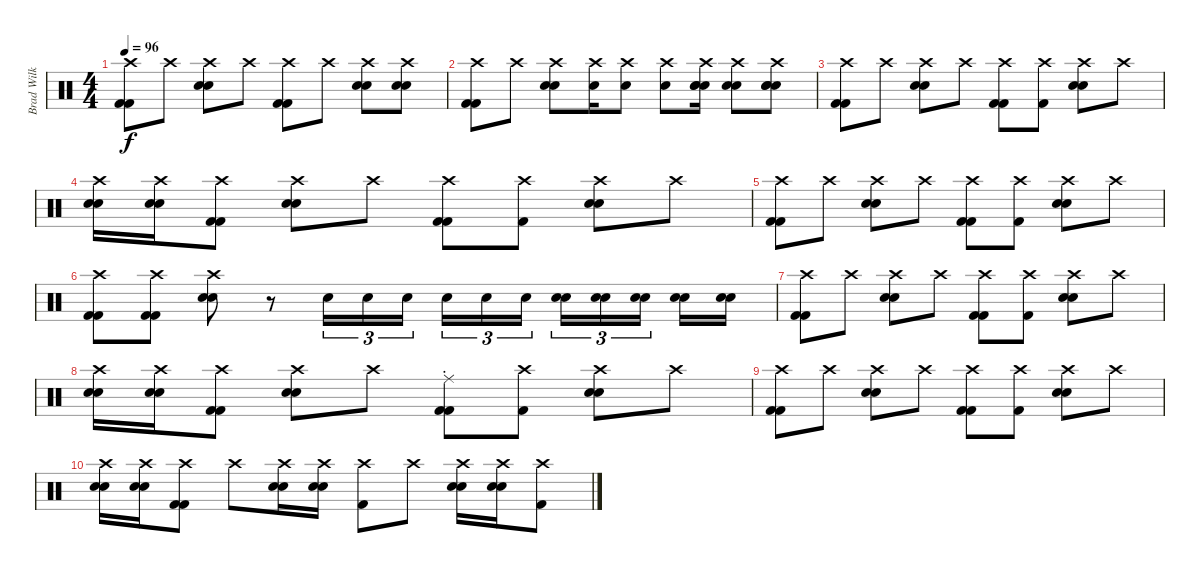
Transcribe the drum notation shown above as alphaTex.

\track ("Brad Wilk" "Brad Wilk") {instrument percussion}
\staff {score}
\articulation defaults
\ts (4 4)
\tempo 96
\clef neutral
\ks c
("Crash high (hit)" "Kick (hit) 2" "Kick (hit) 2").8{dy f} "Crash high (hit)".8 ("Crash high (hit)" "Electric Snare (hit)" "Electric Snare (hit)").8 "Crash high (hit)".8 ("Crash high (hit)" "Kick (hit) 2" "Kick (hit) 2").8 "Crash high (hit)".8 ("Crash high (hit)" "Electric Snare (hit)" "Electric Snare (hit)").8 ("Crash high (hit)" "Electric Snare (hit)" "Electric Snare (hit)").8 |
("Crash high (hit)" "Kick (hit) 2" "Kick (hit) 2").8 "Crash high (hit)".8 ("Crash high (hit)" "Electric Snare (hit)" "Electric Snare (hit)").8 ("Crash high (hit)" "Electric Snare (hit)").16 ("Crash high (hit)" "Electric Snare (hit)").8 ("Crash high (hit)" "Electric Snare (hit)").8 ("Crash high (hit)" "Electric Snare (hit)" "Electric Snare (hit)" "Electric Snare (hit)").16 ("Crash high (hit)" "Electric Snare (hit)" "Electric Snare (hit)").8 ("Crash high (hit)" "Electric Snare (hit)" "Electric Snare (hit)" "Electric Snare (hit)").8 |
("Crash high (hit)" "Kick (hit) 2" "Kick (hit) 2").8 "Crash high (hit)".8 ("Crash high (hit)" "Electric Snare (hit)" "Electric Snare (hit)").8 "Crash high (hit)".8 ("Crash high (hit)" "Kick (hit) 2" "Kick (hit) 2").8 ("Crash high (hit)" "Kick (hit) 2").8 ("Crash high (hit)" "Electric Snare (hit)" "Electric Snare (hit)").8 "Crash high (hit)".8 |
("Crash high (hit)" "Electric Snare (hit)" "Electric Snare (hit)").16{volume 11} ("Crash high (hit)" "Electric Snare (hit)" "Electric Snare (hit)").16 ("Crash high (hit)" "Kick (hit) 2" "Kick (hit) 2").8 ("Crash high (hit)" "Electric Snare (hit)" "Electric Snare (hit)").8 "Crash high (hit)".8 ("Crash high (hit)" "Kick (hit) 2" "Kick (hit) 2").8 ("Crash high (hit)" "Kick (hit) 2").8 ("Crash high (hit)" "Electric Snare (hit)" "Electric Snare (hit)").8 "Crash high (hit)".8 |
("Crash high (hit)" "Kick (hit) 2" "Kick (hit) 2").8 "Crash high (hit)".8 ("Crash high (hit)" "Electric Snare (hit)" "Electric Snare (hit)").8 "Crash high (hit)".8 ("Crash high (hit)" "Kick (hit) 2" "Kick (hit) 2").8 ("Crash high (hit)" "Kick (hit) 2").8 ("Crash high (hit)" "Electric Snare (hit)" "Electric Snare (hit)").8 "Crash high (hit)".8 |
("Crash high (hit)" "Kick (hit) 2" "Kick (hit) 2").8 ("Crash high (hit)" "Kick (hit) 2" "Kick (hit) 2").8 ("Crash high (hit)" "Electric Snare (hit)" "Electric Snare (hit)").8 r.8 "Electric Snare (hit)".16{tu (3 2)} "Electric Snare (hit)".16{tu (3 2)} "Electric Snare (hit)".16{tu (3 2)} "Electric Snare (hit)".16{tu (3 2)} "Electric Snare (hit)".16{tu (3 2)} "Electric Snare (hit)".16{tu (3 2)} ("Electric Snare (hit)" "Electric Snare (hit)").16{tu (3 2)} ("Electric Snare (hit)" "Electric Snare (hit)").16{tu (3 2)} ("Electric Snare (hit)" "Electric Snare (hit)").16{tu (3 2)} ("Electric Snare (hit)" "Electric Snare (hit)").16 ("Electric Snare (hit)" "Electric Snare (hit)").16 |
("Crash high (hit)" "Kick (hit) 2" "Kick (hit) 2").8 "Crash high (hit)".8 ("Crash high (hit)" "Electric Snare (hit)" "Electric Snare (hit)").8 "Crash high (hit)".8 ("Crash high (hit)" "Kick (hit) 2" "Kick (hit) 2").8 ("Crash high (hit)" "Kick (hit) 2").8 ("Crash high (hit)" "Electric Snare (hit)" "Electric Snare (hit)").8 "Crash high (hit)".8 |
("Crash high (hit)" "Electric Snare (hit)" "Electric Snare (hit)").16{volume 11} ("Crash high (hit)" "Electric Snare (hit)" "Electric Snare (hit)").16 ("Crash high (hit)" "Kick (hit) 2" "Kick (hit) 2").8 ("Crash high (hit)" "Electric Snare (hit)" "Electric Snare (hit)").8 "Crash high (hit)".8 ("Ride (choke)" "Kick (hit) 2" "Kick (hit) 2").8 ("Crash high (hit)" "Kick (hit) 2").8 ("Crash high (hit)" "Electric Snare (hit)" "Electric Snare (hit)").8 "Crash high (hit)".8 |
("Crash high (hit)" "Kick (hit) 2" "Kick (hit) 2").8 "Crash high (hit)".8 ("Crash high (hit)" "Electric Snare (hit)" "Electric Snare (hit)").8 "Crash high (hit)".8 ("Crash high (hit)" "Kick (hit) 2" "Kick (hit) 2").8 ("Crash high (hit)" "Kick (hit) 2").8 ("Crash high (hit)" "Electric Snare (hit)" "Electric Snare (hit)").8 "Crash high (hit)".8 |
("Crash high (hit)" "Electric Snare (hit)" "Electric Snare (hit)").16{volume 11} ("Crash high (hit)" "Electric Snare (hit)" "Electric Snare (hit)").16 ("Crash high (hit)" "Kick (hit) 2" "Kick (hit) 2").8 "Crash high (hit)".8 ("Crash high (hit)" "Electric Snare (hit)" "Electric Snare (hit)").16 ("Crash high (hit)" "Electric Snare (hit)" "Electric Snare (hit)").16 ("Crash high (hit)" "Kick (hit) 2").8 "Crash high (hit)".8 ("Crash high (hit)" "Electric Snare (hit)" "Electric Snare (hit)").16 ("Crash high (hit)" "Electric Snare (hit)" "Electric Snare (hit)").16 ("Crash high (hit)" "Kick (hit) 2").8
